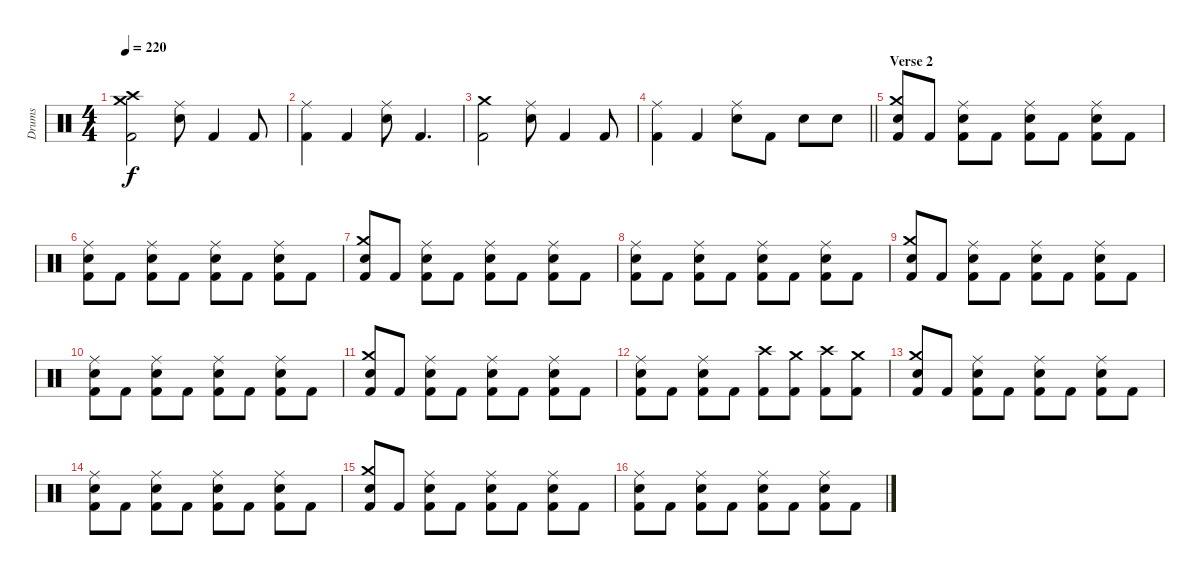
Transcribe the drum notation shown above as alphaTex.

\track ("Drums" "Drums") {instrument percussion}
\staff {score}
\articulation defaults
\ts (4 4)
\tempo 220
\clef neutral
\ks c
("Kick (hit) 2" "Crash high (hit)" "Crash medium (hit)").2{dy f} ("Snare (hit) 2" "Ride (middle)").8 "Kick (hit) 2".4 "Kick (hit) 2".8 |
("Kick (hit) 2" "Ride (middle)").4 "Kick (hit) 2".4 ("Snare (hit) 2" "Ride (middle)").8 "Kick (hit) 2".4{d} |
("Kick (hit) 2" "Crash medium (hit)").2 ("Snare (hit) 2" "Ride (middle)").8 "Kick (hit) 2".4 "Kick (hit) 2".8 |
\barLineRight lightlight
("Kick (hit) 2" "Ride (middle)").4 "Kick (hit) 2".4 ("Snare (hit) 2" "Ride (middle)").8 "Kick (hit) 2".8 "Snare (hit) 2".8 "Snare (hit) 2".8 |
\section ("" "Verse 2")
("Kick (hit) 2" "Snare (hit) 2" "Crash medium (hit)").8 "Kick (hit) 2".8 ("Kick (hit) 2" "Snare (hit) 2" "Ride (middle)").8 "Kick (hit) 2".8 ("Kick (hit) 2" "Snare (hit) 2" "Ride (middle)").8 "Kick (hit) 2".8 ("Kick (hit) 2" "Snare (hit) 2" "Ride (middle)").8 "Kick (hit) 2".8 |
("Kick (hit) 2" "Snare (hit) 2" "Ride (middle)").8 "Kick (hit) 2".8 ("Kick (hit) 2" "Snare (hit) 2" "Ride (middle)").8 "Kick (hit) 2".8 ("Kick (hit) 2" "Snare (hit) 2" "Ride (middle)").8 "Kick (hit) 2".8 ("Kick (hit) 2" "Snare (hit) 2" "Ride (middle)").8 "Kick (hit) 2".8 |
("Kick (hit) 2" "Snare (hit) 2" "Crash medium (hit)").8 "Kick (hit) 2".8 ("Kick (hit) 2" "Snare (hit) 2" "Ride (middle)").8 "Kick (hit) 2".8 ("Kick (hit) 2" "Snare (hit) 2" "Ride (middle)").8 "Kick (hit) 2".8 ("Kick (hit) 2" "Snare (hit) 2" "Ride (middle)").8 "Kick (hit) 2".8 |
("Kick (hit) 2" "Snare (hit) 2" "Ride (middle)").8 "Kick (hit) 2".8 ("Kick (hit) 2" "Snare (hit) 2" "Ride (middle)").8 "Kick (hit) 2".8 ("Kick (hit) 2" "Snare (hit) 2" "Ride (middle)").8 "Kick (hit) 2".8 ("Kick (hit) 2" "Snare (hit) 2" "Ride (middle)").8 "Kick (hit) 2".8 |
("Kick (hit) 2" "Snare (hit) 2" "Crash medium (hit)").8 "Kick (hit) 2".8 ("Kick (hit) 2" "Snare (hit) 2" "Ride (middle)").8 "Kick (hit) 2".8 ("Kick (hit) 2" "Snare (hit) 2" "Ride (middle)").8 "Kick (hit) 2".8 ("Kick (hit) 2" "Snare (hit) 2" "Ride (middle)").8 "Kick (hit) 2".8 |
("Kick (hit) 2" "Snare (hit) 2" "Ride (middle)").8 "Kick (hit) 2".8 ("Kick (hit) 2" "Snare (hit) 2" "Ride (middle)").8 "Kick (hit) 2".8 ("Kick (hit) 2" "Snare (hit) 2" "Ride (middle)").8 "Kick (hit) 2".8 ("Kick (hit) 2" "Snare (hit) 2" "Ride (middle)").8 "Kick (hit) 2".8 |
("Kick (hit) 2" "Snare (hit) 2" "Crash medium (hit)").8 "Kick (hit) 2".8 ("Kick (hit) 2" "Snare (hit) 2" "Ride (middle)").8 "Kick (hit) 2".8 ("Kick (hit) 2" "Snare (hit) 2" "Ride (middle)").8 "Kick (hit) 2".8 ("Kick (hit) 2" "Snare (hit) 2" "Ride (middle)").8 "Kick (hit) 2".8 |
("Kick (hit) 2" "Snare (hit) 2" "Ride (middle)").8 "Kick (hit) 2".8 ("Kick (hit) 2" "Snare (hit) 2" "Ride (middle)").8 "Kick (hit) 2".8 ("Kick (hit) 2" "Crash high (hit)").8 ("Kick (hit) 2" "Crash medium (hit)").8 ("Kick (hit) 2" "Crash high (hit)").8 ("Kick (hit) 2" "Crash medium (hit)").8 |
("Kick (hit) 2" "Snare (hit) 2" "Crash medium (hit)").8 "Kick (hit) 2".8 ("Kick (hit) 2" "Snare (hit) 2" "Ride (middle)").8 "Kick (hit) 2".8 ("Kick (hit) 2" "Snare (hit) 2" "Ride (middle)").8 "Kick (hit) 2".8 ("Kick (hit) 2" "Snare (hit) 2" "Ride (middle)").8 "Kick (hit) 2".8 |
("Kick (hit) 2" "Snare (hit) 2" "Ride (middle)").8 "Kick (hit) 2".8 ("Kick (hit) 2" "Snare (hit) 2" "Ride (middle)").8 "Kick (hit) 2".8 ("Kick (hit) 2" "Snare (hit) 2" "Ride (middle)").8 "Kick (hit) 2".8 ("Kick (hit) 2" "Snare (hit) 2" "Ride (middle)").8 "Kick (hit) 2".8 |
("Kick (hit) 2" "Snare (hit) 2" "Crash medium (hit)").8 "Kick (hit) 2".8 ("Kick (hit) 2" "Snare (hit) 2" "Ride (middle)").8 "Kick (hit) 2".8 ("Kick (hit) 2" "Snare (hit) 2" "Ride (middle)").8 "Kick (hit) 2".8 ("Kick (hit) 2" "Snare (hit) 2" "Ride (middle)").8 "Kick (hit) 2".8 |
("Kick (hit) 2" "Snare (hit) 2" "Ride (middle)").8 "Kick (hit) 2".8 ("Kick (hit) 2" "Snare (hit) 2" "Ride (middle)").8 "Kick (hit) 2".8 ("Kick (hit) 2" "Snare (hit) 2" "Ride (middle)").8 "Kick (hit) 2".8 ("Kick (hit) 2" "Snare (hit) 2" "Ride (middle)").8 "Kick (hit) 2".8
